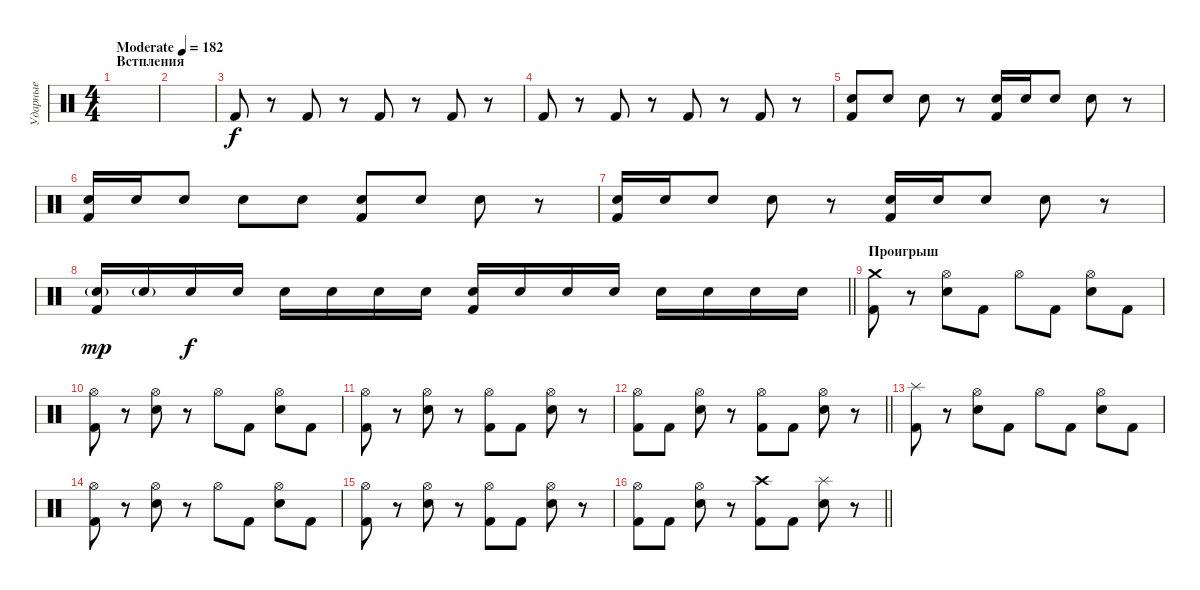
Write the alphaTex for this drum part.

\track ("Ударные" "Ударные") {instrument percussion}
\staff {score}
\articulation defaults
\ts (4 4)
\section ("" "Встпления")
\tempo (182 "Moderate")
\clef neutral
\ks c
|
|
"Kick (hit) 2".8 r.8 "Kick (hit) 2".8 r.8 "Kick (hit) 2".8 r.8 "Kick (hit) 2".8 r.8 |
"Kick (hit) 2".8 r.8 "Kick (hit) 2".8 r.8 "Kick (hit) 2".8 r.8 "Kick (hit) 2".8 r.8 |
("Snare (hit) 2" "Kick (hit) 2").8 "Snare (hit) 2".8 "Snare (hit) 2".8 r.8 ("Snare (hit) 2" "Kick (hit) 2").16 "Snare (hit) 2".16 "Snare (hit) 2".8 "Snare (hit) 2".8 r.8 |
("Snare (hit) 2" "Kick (hit) 2").16 "Snare (hit) 2".16 "Snare (hit) 2".8 "Snare (hit) 2".8 "Snare (hit) 2".8 ("Snare (hit) 2" "Kick (hit) 2").8 "Snare (hit) 2".8 "Snare (hit) 2".8 r.8 |
("Snare (hit) 2" "Kick (hit) 2").16 "Snare (hit) 2".16 "Snare (hit) 2".8 "Snare (hit) 2".8 r.8 ("Snare (hit) 2" "Kick (hit) 2").16 "Snare (hit) 2".16 "Snare (hit) 2".8 "Snare (hit) 2".8 r.8 |
\barLineRight lightlight
("Snare (hit) 2"{g} "Kick (hit) 2").16{dy mp} "Snare (hit) 2"{g}.16 "Snare (hit) 2".16{dy f} "Snare (hit) 2".16 "Snare (hit) 2".16 "Snare (hit) 2".16 "Snare (hit) 2".16 "Snare (hit) 2".16 ("Snare (hit) 2" "Kick (hit) 2").16 "Snare (hit) 2".16 "Snare (hit) 2".16 "Snare (hit) 2".16 "Snare (hit) 2".16 "Snare (hit) 2".16 "Snare (hit) 2".16 "Snare (hit) 2".16 |
\section ("" "Проигрыш ")
("Crash medium (hit)" "Kick (hit) 2").8 r.8 ("Hi-Hat (open)" "Snare (hit) 2").8 "Kick (hit) 2".8 "Hi-Hat (open)".8 "Kick (hit) 2".8 ("Hi-Hat (open)" "Snare (hit) 2").8 "Kick (hit) 2".8 |
("Hi-Hat (open)" "Kick (hit) 2").8 r.8 ("Hi-Hat (open)" "Snare (hit) 2").8 r.8 "Hi-Hat (open)".8 "Kick (hit) 2".8 ("Hi-Hat (open)" "Snare (hit) 2").8 "Kick (hit) 2".8 |
("Hi-Hat (open)" "Kick (hit) 2").8 r.8 ("Hi-Hat (open)" "Snare (hit) 2").8 r.8 ("Hi-Hat (open)" "Kick (hit) 2").8 "Kick (hit) 2".8 ("Hi-Hat (open)" "Snare (hit) 2").8 r.8 |
\barLineRight lightlight
("Hi-Hat (open)" "Kick (hit) 2").8 "Kick (hit) 2".8 ("Hi-Hat (open)" "Snare (hit) 2").8 r.8 ("Hi-Hat (open)" "Kick (hit) 2").8 "Kick (hit) 2".8 ("Hi-Hat (open)" "Snare (hit) 2").8 r.8 |
("Splash (hit)" "Kick (hit) 2").8 r.8 ("Hi-Hat (open)" "Snare (hit) 2").8 "Kick (hit) 2".8 "Hi-Hat (open)".8 "Kick (hit) 2".8 ("Hi-Hat (open)" "Snare (hit) 2").8 "Kick (hit) 2".8 |
("Hi-Hat (open)" "Kick (hit) 2").8 r.8 ("Hi-Hat (open)" "Snare (hit) 2").8 r.8 "Hi-Hat (open)".8 "Kick (hit) 2".8 ("Hi-Hat (open)" "Snare (hit) 2").8 "Kick (hit) 2".8 |
("Hi-Hat (open)" "Kick (hit) 2").8 r.8 ("Hi-Hat (open)" "Snare (hit) 2").8 r.8 ("Hi-Hat (open)" "Kick (hit) 2").8 "Kick (hit) 2".8 ("Hi-Hat (open)" "Snare (hit) 2").8 r.8 |
\barLineRight lightlight
("Hi-Hat (open)" "Kick (hit) 2").8 "Kick (hit) 2".8 ("Hi-Hat (open)" "Snare (hit) 2").8 r.8 ("Crash high (hit)" "Kick (hit) 2").8 "Kick (hit) 2".8 ("Splash (hit)" "Snare (hit) 2").8 r.8
